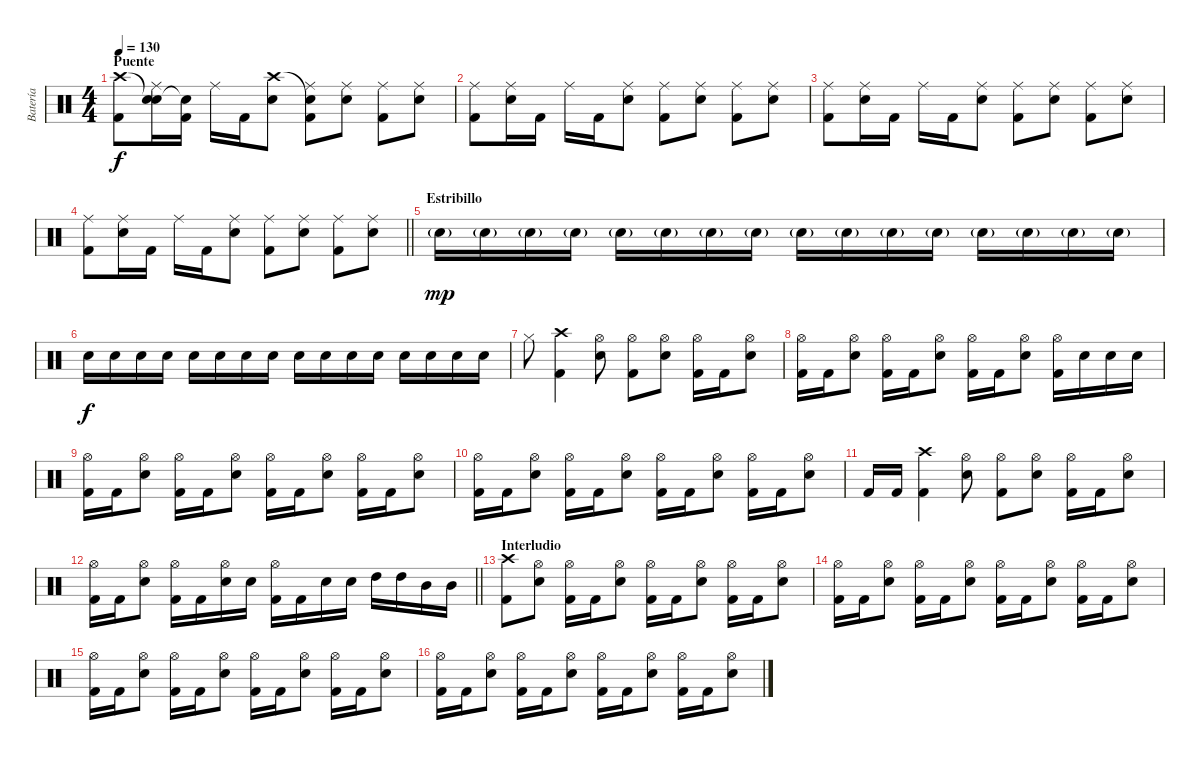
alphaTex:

\track ("Batería" "Batería") {instrument percussion}
\staff {score}
\articulation defaults
\ts (4 4)
\section ("" "Puente")
\tempo 130
\clef neutral
\ks c
("Crash high (hit)" "Kick (hit) 2").8{dy f} ("Snare (hit)"{t} "Ride (middle)" "Snare (hit) 2").16 ("Snare (hit)"{t} "Kick (hit) 2").16 "Ride (middle)".16 "Kick (hit) 2".16 ("Crash high (hit)" "Snare (hit) 2").8 ("Snare (hit)"{t} "Ride (middle)" "Kick (hit) 2").8 ("Ride (middle)" "Snare (hit) 2").8 ("Ride (middle)" "Kick (hit) 2").8 ("Ride (middle)" "Snare (hit) 2").8 |
("Ride (middle)" "Kick (hit) 2").8 ("Ride (middle)" "Snare (hit) 2").16 "Kick (hit) 2".16 "Ride (middle)".16 "Kick (hit) 2".16 ("Ride (middle)" "Snare (hit) 2").8 ("Ride (middle)" "Kick (hit) 2").8 ("Ride (middle)" "Snare (hit) 2").8 ("Ride (middle)" "Kick (hit) 2").8 ("Ride (middle)" "Snare (hit) 2").8 |
("Ride (middle)" "Kick (hit) 2").8 ("Ride (middle)" "Snare (hit) 2").16 "Kick (hit) 2".16 "Ride (middle)".16 "Kick (hit) 2".16 ("Ride (middle)" "Snare (hit) 2").8 ("Ride (middle)" "Kick (hit) 2").8 ("Ride (middle)" "Snare (hit) 2").8 ("Ride (middle)" "Kick (hit) 2").8 ("Ride (middle)" "Snare (hit) 2").8 |
\barLineRight lightlight
("Ride (middle)" "Kick (hit) 2").8 ("Ride (middle)" "Snare (hit) 2").16 "Kick (hit) 2".16 "Ride (middle)".16 "Kick (hit) 2".16 ("Ride (middle)" "Snare (hit) 2").8 ("Ride (middle)" "Kick (hit) 2").8 ("Ride (middle)" "Snare (hit) 2").8 ("Ride (middle)" "Kick (hit) 2").8 ("Ride (middle)" "Snare (hit) 2").8 |
\section ("" "Estribillo")
"Snare (hit) 2"{g}.16{dy mp} "Snare (hit) 2"{g}.16 "Snare (hit) 2"{g}.16 "Snare (hit) 2"{g}.16 "Snare (hit) 2"{g}.16 "Snare (hit) 2"{g}.16 "Snare (hit) 2"{g}.16 "Snare (hit) 2"{g}.16 "Snare (hit) 2"{g}.16 "Snare (hit) 2"{g}.16 "Snare (hit) 2"{g}.16 "Snare (hit) 2"{g}.16 "Snare (hit) 2"{g}.16 "Snare (hit) 2"{g}.16 "Snare (hit) 2"{g}.16 "Snare (hit) 2"{g}.16 |
"Snare (hit) 2".16{dy f} "Snare (hit) 2".16 "Snare (hit) 2".16 "Snare (hit) 2".16 "Snare (hit) 2".16 "Snare (hit) 2".16 "Snare (hit) 2".16 "Snare (hit) 2".16 "Snare (hit) 2".16 "Snare (hit) 2".16 "Snare (hit) 2".16 "Snare (hit) 2".16 "Snare (hit) 2".16 "Snare (hit) 2".16 "Snare (hit) 2".16 "Snare (hit) 2".16 |
"Hi-Hat (closed)".8 ("Crash high (hit)" "Kick (hit) 2").4 ("Hi-Hat (open)" "Snare (hit) 2").8 ("Hi-Hat (open)" "Kick (hit) 2").8 ("Hi-Hat (open)" "Snare (hit) 2").8 ("Hi-Hat (open)" "Kick (hit) 2").16 "Kick (hit) 2".16 ("Hi-Hat (open)" "Snare (hit) 2").8 |
("Hi-Hat (open)" "Kick (hit) 2").16 "Kick (hit) 2".16 ("Hi-Hat (open)" "Snare (hit) 2").8 ("Hi-Hat (open)" "Kick (hit) 2").16 "Kick (hit) 2".16 ("Hi-Hat (open)" "Snare (hit) 2").8 ("Hi-Hat (open)" "Kick (hit) 2").16 "Kick (hit) 2".16 ("Hi-Hat (open)" "Snare (hit) 2").8 ("Hi-Hat (open)" "Kick (hit) 2").16 "Snare (hit) 2".16 "Snare (hit) 2".16 "Snare (hit) 2".16 |
("Hi-Hat (open)" "Kick (hit) 2").16 "Kick (hit) 2".16 ("Hi-Hat (open)" "Snare (hit) 2").8 ("Hi-Hat (open)" "Kick (hit) 2").16 "Kick (hit) 2".16 ("Hi-Hat (open)" "Snare (hit) 2").8 ("Hi-Hat (open)" "Kick (hit) 2").16 "Kick (hit) 2".16 ("Hi-Hat (open)" "Snare (hit) 2").8 ("Hi-Hat (open)" "Kick (hit) 2").16 "Kick (hit) 2".16 ("Hi-Hat (open)" "Snare (hit) 2").8 |
("Hi-Hat (open)" "Kick (hit) 2").16 "Kick (hit) 2".16 ("Hi-Hat (open)" "Snare (hit) 2").8 ("Hi-Hat (open)" "Kick (hit) 2").16 "Kick (hit) 2".16 ("Hi-Hat (open)" "Snare (hit) 2").8 ("Hi-Hat (open)" "Kick (hit) 2").16 "Kick (hit) 2".16 ("Hi-Hat (open)" "Snare (hit) 2").8 ("Hi-Hat (open)" "Kick (hit) 2").16 "Kick (hit) 2".16 ("Hi-Hat (open)" "Snare (hit) 2").8 |
"Kick (hit) 2".16 "Kick (hit) 2".16 ("Crash high (hit)" "Kick (hit) 2").4 ("Hi-Hat (open)" "Snare (hit) 2").8 ("Hi-Hat (open)" "Kick (hit) 2").8 ("Hi-Hat (open)" "Snare (hit) 2").8 ("Hi-Hat (open)" "Kick (hit) 2").16 "Kick (hit) 2".16 ("Hi-Hat (open)" "Snare (hit) 2").8 |
\barLineRight lightlight
("Hi-Hat (open)" "Kick (hit) 2").16 "Kick (hit) 2".16 ("Hi-Hat (open)" "Snare (hit) 2").8 ("Hi-Hat (open)" "Kick (hit) 2").16 "Kick (hit) 2".16 ("Hi-Hat (open)" "Snare (hit) 2").16 "Snare (hit) 2".16 ("Hi-Hat (open)" "Kick (hit) 2").16 "Kick (hit) 2".16 "Snare (hit) 2".16 "Snare (hit) 2".16 "High Tom (hit)".16 "High Tom (hit)".16 "Mid Tom (hit)".16 "Mid Tom (hit)".16 |
\section ("" "Interludio")
("Crash high (hit)" "Kick (hit) 2").8 ("Hi-Hat (open)" "Snare (hit) 2").8 ("Hi-Hat (open)" "Kick (hit) 2").16 "Kick (hit) 2".16 ("Hi-Hat (open)" "Snare (hit) 2").8 ("Hi-Hat (open)" "Kick (hit) 2").16 "Kick (hit) 2".16 ("Hi-Hat (open)" "Snare (hit) 2").8 ("Hi-Hat (open)" "Kick (hit) 2").16 "Kick (hit) 2".16 ("Hi-Hat (open)" "Snare (hit) 2").8 |
("Hi-Hat (open)" "Kick (hit) 2").16 "Kick (hit) 2".16 ("Hi-Hat (open)" "Snare (hit) 2").8 ("Hi-Hat (open)" "Kick (hit) 2").16 "Kick (hit) 2".16 ("Hi-Hat (open)" "Snare (hit) 2").8 ("Hi-Hat (open)" "Kick (hit) 2").16 "Kick (hit) 2".16 ("Hi-Hat (open)" "Snare (hit) 2").8 ("Hi-Hat (open)" "Kick (hit) 2").16 "Kick (hit) 2".16 ("Hi-Hat (open)" "Snare (hit) 2").8 |
("Hi-Hat (open)" "Kick (hit) 2").16 "Kick (hit) 2".16 ("Hi-Hat (open)" "Snare (hit) 2").8 ("Hi-Hat (open)" "Kick (hit) 2").16 "Kick (hit) 2".16 ("Hi-Hat (open)" "Snare (hit) 2").8 ("Hi-Hat (open)" "Kick (hit) 2").16 "Kick (hit) 2".16 ("Hi-Hat (open)" "Snare (hit) 2").8 ("Hi-Hat (open)" "Kick (hit) 2").16 "Kick (hit) 2".16 ("Hi-Hat (open)" "Snare (hit) 2").8 |
("Hi-Hat (open)" "Kick (hit) 2").16 "Kick (hit) 2".16 ("Hi-Hat (open)" "Snare (hit) 2").8 ("Hi-Hat (open)" "Kick (hit) 2").16 "Kick (hit) 2".16 ("Hi-Hat (open)" "Snare (hit) 2").8 ("Hi-Hat (open)" "Kick (hit) 2").16 "Kick (hit) 2".16 ("Hi-Hat (open)" "Snare (hit) 2").8 ("Hi-Hat (open)" "Kick (hit) 2").16 "Kick (hit) 2".16 ("Hi-Hat (open)" "Snare (hit) 2").8
